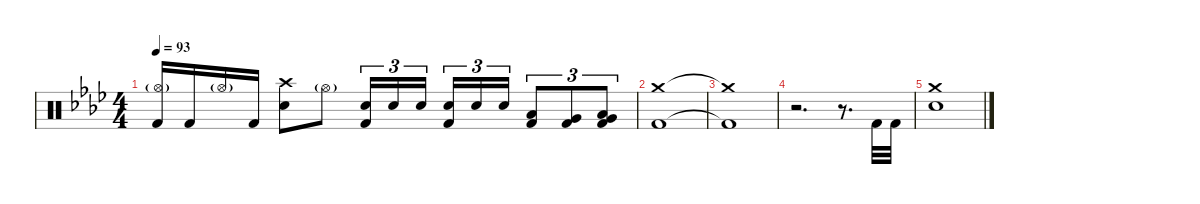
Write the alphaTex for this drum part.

\defaultSystemsLayout 4
\hideDynamics
\bracketExtendMode nobrackets
\singleTrackTrackNamePolicy hidden
\multiTrackTrackNamePolicy hidden
\firstSystemTrackNameMode fullname
\firstSystemTrackNameOrientation horizontal
\otherSystemsTrackNameOrientation horizontal
\track ("Drums" "drm.") {instrument percussion}
\staff {score}
\articulation defaults
\ts (4 4)
\tempo 93
\clef neutral
\ks ab
("Hi-Hat (open)"{g acc forcenatural} "Kick (hit) 2"{acc forcenatural}).16{dy f beam Up} "Kick (hit) 2"{acc forcenatural}.16{beam Up} "Hi-Hat (open)"{g acc forcenatural}.16{dy mf beam Up} "Kick (hit) 2"{acc forcenatural}.16{dy f beam Up} ("Crash high (hit)"{acc forcenatural} "Snare (hit) 2"{acc forcenatural}).8{beam Down} "Hi-Hat (open)"{g acc forcenatural}.8{dy mf beam Down} ("Snare (hit) 2"{acc forcenatural} "Kick (hit) 2"{acc forcenatural}).16{tu (3 2) dy f beam Up} "Snare (hit) 2"{acc forcenatural}.16{tu (3 2) beam Up} "Snare (hit) 2"{acc forcenatural}.16{tu (3 2) beam Up} ("Snare (hit) 2"{acc forcenatural} "Kick (hit) 2"{acc forcenatural}).16{tu (3 2) beam Up} "Snare (hit) 2"{acc forcenatural}.16{tu (3 2) beam Up} "Snare (hit) 2"{acc forcenatural}.16{tu (3 2) beam Up} ("Low Tom (hit)"{acc forcenatural} "Kick (hit) 2"{acc forcenatural}).8{tu (3 2) beam Up} ("Very Low Tom (hit)"{acc forcenatural} "Kick (hit) 2"{acc forcenatural}).8{tu (3 2) beam Up} ("Very Low Tom (hit)"{acc forcenatural} "Low Floor Tom (hit)"{acc forcenatural} "Kick (hit) 2"{acc forcenatural}).8{tu (3 2) beam Up} |
("Crash medium (hit)"{acc forcenatural} "Kick (hit) 2"{acc forcenatural}).1{beam Down} |
("Crash medium (hit)"{t acc forcenatural} "Kick (hit) 2"{t acc forcenatural}).1{beam Down} |
r.2{d beam Down} r.8{d beam Down} "Kick (hit) 2"{acc forcenatural}.32{beam Up} "Kick (hit) 2"{acc forcenatural}.32{beam Up} |
("Crash medium (hit)"{acc forcenatural} "Snare (hit) 2"{acc forcenatural}).1{beam Down}
